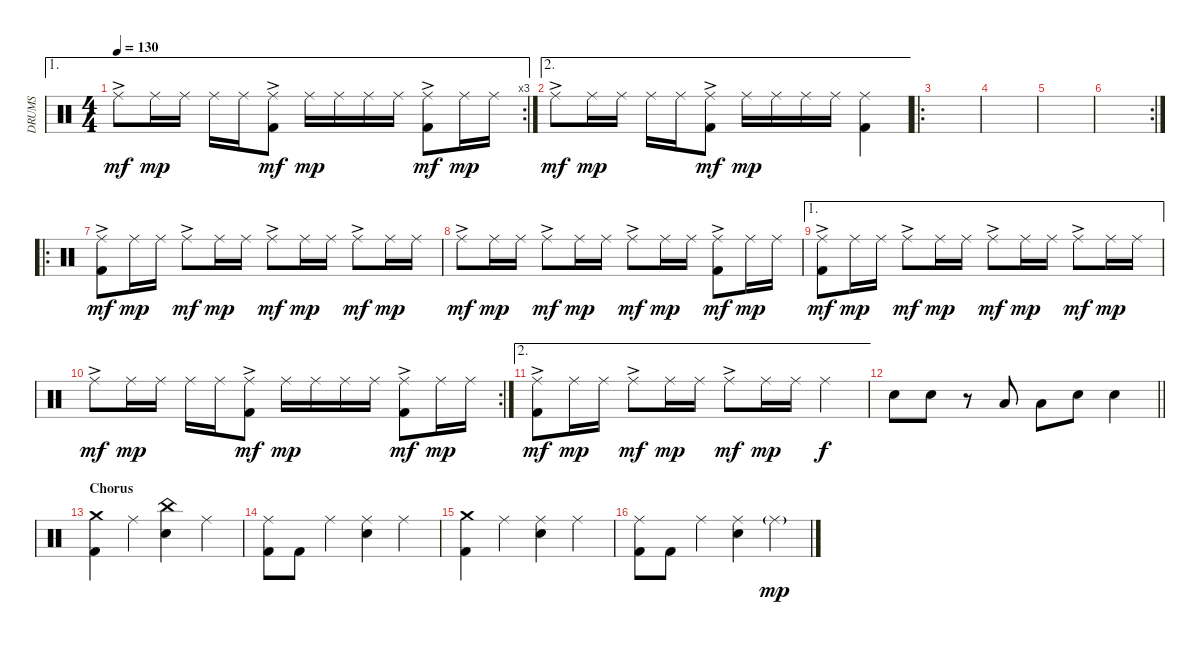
\track ("DRUMS" "DRUMS") {instrument percussion}
\staff {score}
\articulation defaults
\ae 1
\rc 3
\ts (4 4)
\tempo 130
\clef neutral
\ks c "Ride (middle)"{ac}.8{dy mf} "Ride (middle)".16{dy mp} "Ride (middle)".16 "Ride (middle)".16 "Ride (middle)".16
("Ride (middle)"{ac} "Kick (hit) 2").8{dy mf} "Ride (middle)".16{dy mp} "Ride (middle)".16 "Ride (middle)".16 "Ride (middle)".16 ("Ride (middle)"{ac} "Kick (hit) 2").8{dy mf} "Ride (middle)".16{dy mp} "Ride (middle)".16 |
\ae 2 "Ride (middle)"{ac}.8{dy mf} "Ride (middle)".16{dy mp} "Ride (middle)".16 "Ride (middle)".16 "Ride (middle)".16
("Ride (middle)"{ac} "Kick (hit) 2").8{dy mf} "Ride (middle)".16{dy mp} "Ride (middle)".16 "Ride (middle)".16 "Ride (middle)".16 ("Ride (middle)" "Kick (hit) 2").4 |
\ro
|
|
|
\rc 2
|
\ro
("Ride (middle)"{ac} "Kick (hit) 2").8{dy mf} "Ride (middle)".16{dy mp} "Ride (middle)".16 "Ride (middle)"{ac}.8{dy mf} "Ride (middle)".16{dy mp} "Ride (middle)".16 "Ride (middle)"{ac}.8{dy mf} "Ride (middle)".16{dy mp} "Ride (middle)".16 "Ride (middle)"{ac}.8{dy mf} "Ride (middle)".16{dy mp} "Ride (middle)".16 |
"Ride (middle)"{ac}.8{dy mf} "Ride (middle)".16{dy mp} "Ride (middle)".16 "Ride (middle)"{ac}.8{dy mf} "Ride (middle)".16{dy mp} "Ride (middle)".16 "Ride (middle)"{ac}.8{dy mf} "Ride (middle)".16{dy mp} "Ride (middle)".16 ("Ride (middle)"{ac} "Kick (hit) 2").8{dy mf} "Ride (middle)".16{dy mp} "Ride (middle)".16 |
\ae 1
("Ride (middle)"{ac} "Kick (hit) 2").8{dy mf} "Ride (middle)".16{dy mp} "Ride (middle)".16 "Ride (middle)"{ac}.8{dy mf} "Ride (middle)".16{dy mp} "Ride (middle)".16 "Ride (middle)"{ac}.8{dy mf} "Ride (middle)".16{dy mp} "Ride (middle)".16 "Ride (middle)"{ac}.8{dy mf} "Ride (middle)".16{dy mp} "Ride (middle)".16 |
\rc 2 "Ride (middle)"{ac}.8{dy mf} "Ride (middle)".16{dy mp} "Ride (middle)".16 "Ride (middle)".16 "Ride (middle)".16
("Ride (middle)"{ac} "Kick (hit) 2").8{dy mf} "Ride (middle)".16{dy mp} "Ride (middle)".16 "Ride (middle)".16 "Ride (middle)".16 ("Ride (middle)"{ac} "Kick (hit) 2").8{dy mf} "Ride (middle)".16{dy mp} "Ride (middle)".16 |
\ae 2
("Ride (middle)"{ac} "Kick (hit) 2").8{dy mf} "Ride (middle)".16{dy mp} "Ride (middle)".16 "Ride (middle)"{ac}.8{dy mf} "Ride (middle)".16{dy mp} "Ride (middle)".16 "Ride (middle)"{ac}.8{dy mf} "Ride (middle)".16{dy mp} "Ride (middle)".16 "Ride (middle)".4{dy f} |
\barLineRight lightlight "Snare (hit) 2".8 "Snare (hit) 2".8
r.8 "Low Tom (hit)".8 "Low Tom (hit)".8 "Snare (hit) 2".8 "Snare (hit) 2".4 |
\section ("" "Chorus")
("Crash medium (hit)" "Kick (hit) 2").4 "Ride (middle)".4 ("China (hit)" "Snare (hit) 2").4 "Ride (middle)".4 |
("Ride (middle)" "Kick (hit) 2").8 "Kick (hit) 2".8 "Ride (middle)".4 ("Ride (middle)" "Snare (hit) 2").4 "Ride (middle)".4 |
("Crash medium (hit)" "Kick (hit) 2").4 "Ride (middle)".4 ("Ride (middle)" "Snare (hit) 2").4 "Ride (middle)".4 |
("Ride (middle)" "Kick (hit) 2").8 "Kick (hit) 2".8 "Ride (middle)".4 ("Ride (middle)" "Snare (hit) 2").4 "Ride (middle)"{g}.4{dy mp}
